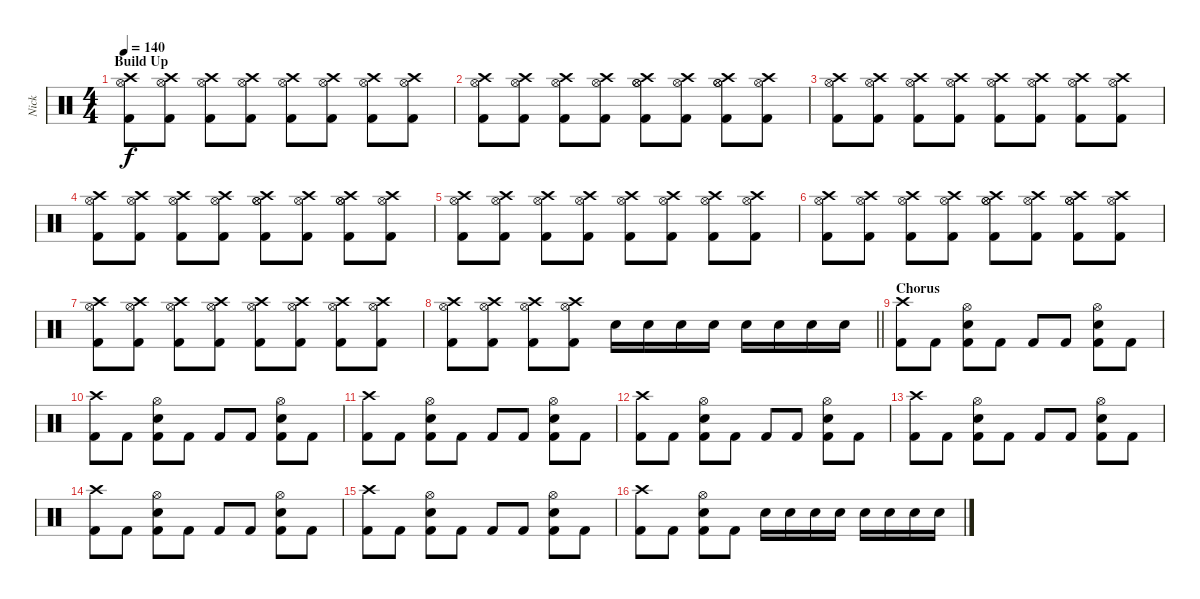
\track ("Nick" "Nick") {instrument percussion}
\staff {score}
\articulation defaults
\ts (4 4)
\section ("" "Build Up")
\tempo 140
\clef neutral
\ks c
("Hi-Hat (open)" "Crash high (hit)" "Kick (hit) 2").8{dy f} ("Hi-Hat (open)" "Crash high (hit)" "Kick (hit) 2").8 ("Hi-Hat (open)" "Crash high (hit)" "Kick (hit) 2").8 ("Hi-Hat (open)" "Crash high (hit)" "Kick (hit) 2").8 ("Hi-Hat (open)" "Crash high (hit)" "Kick (hit) 2").8 ("Hi-Hat (open)" "Crash high (hit)" "Kick (hit) 2").8 ("Hi-Hat (open)" "Crash high (hit)" "Kick (hit) 2").8 ("Hi-Hat (open)" "Crash high (hit)" "Kick (hit) 2").8 |
("Hi-Hat (open)" "Crash high (hit)" "Kick (hit) 2").8 ("Hi-Hat (open)" "Crash high (hit)" "Kick (hit) 2").8 ("Hi-Hat (open)" "Crash high (hit)" "Kick (hit) 2").8 ("Hi-Hat (open)" "Crash high (hit)" "Kick (hit) 2").8 ("Hi-Hat (open)" "Hi-Hat (open)" "Crash high (hit)" "Kick (hit) 2").8 ("Hi-Hat (open)" "Crash high (hit)" "Kick (hit) 2").8 ("Hi-Hat (open)" "Hi-Hat (open)" "Crash high (hit)" "Kick (hit) 2").8 ("Hi-Hat (open)" "Crash high (hit)" "Kick (hit) 2").8 |
("Hi-Hat (open)" "Crash high (hit)" "Kick (hit) 2").8 ("Hi-Hat (open)" "Crash high (hit)" "Kick (hit) 2").8 ("Hi-Hat (open)" "Crash high (hit)" "Kick (hit) 2").8 ("Hi-Hat (open)" "Crash high (hit)" "Kick (hit) 2").8 ("Hi-Hat (open)" "Crash high (hit)" "Kick (hit) 2").8 ("Hi-Hat (open)" "Crash high (hit)" "Kick (hit) 2").8 ("Hi-Hat (open)" "Crash high (hit)" "Kick (hit) 2").8 ("Hi-Hat (open)" "Crash high (hit)" "Kick (hit) 2").8 |
("Hi-Hat (open)" "Crash high (hit)" "Kick (hit) 2").8 ("Hi-Hat (open)" "Crash high (hit)" "Kick (hit) 2").8 ("Hi-Hat (open)" "Crash high (hit)" "Kick (hit) 2").8 ("Hi-Hat (open)" "Crash high (hit)" "Kick (hit) 2").8 ("Hi-Hat (open)" "Hi-Hat (open)" "Crash high (hit)" "Kick (hit) 2").8 ("Hi-Hat (open)" "Crash high (hit)" "Kick (hit) 2").8 ("Hi-Hat (open)" "Hi-Hat (open)" "Crash high (hit)" "Kick (hit) 2").8 ("Hi-Hat (open)" "Crash high (hit)" "Kick (hit) 2").8 |
("Hi-Hat (open)" "Crash high (hit)" "Kick (hit) 2").8 ("Hi-Hat (open)" "Crash high (hit)" "Kick (hit) 2").8 ("Hi-Hat (open)" "Crash high (hit)" "Kick (hit) 2").8 ("Hi-Hat (open)" "Crash high (hit)" "Kick (hit) 2").8 ("Hi-Hat (open)" "Crash high (hit)" "Kick (hit) 2").8 ("Hi-Hat (open)" "Crash high (hit)" "Kick (hit) 2").8 ("Hi-Hat (open)" "Crash high (hit)" "Kick (hit) 2").8 ("Hi-Hat (open)" "Crash high (hit)" "Kick (hit) 2").8 |
("Hi-Hat (open)" "Crash high (hit)" "Kick (hit) 2").8 ("Hi-Hat (open)" "Crash high (hit)" "Kick (hit) 2").8 ("Hi-Hat (open)" "Crash high (hit)" "Kick (hit) 2").8 ("Hi-Hat (open)" "Crash high (hit)" "Kick (hit) 2").8 ("Hi-Hat (open)" "Hi-Hat (open)" "Crash high (hit)" "Kick (hit) 2").8 ("Hi-Hat (open)" "Crash high (hit)" "Kick (hit) 2").8 ("Hi-Hat (open)" "Hi-Hat (open)" "Crash high (hit)" "Kick (hit) 2").8 ("Hi-Hat (open)" "Crash high (hit)" "Kick (hit) 2").8 |
("Hi-Hat (open)" "Crash high (hit)" "Kick (hit) 2").8 ("Hi-Hat (open)" "Crash high (hit)" "Kick (hit) 2").8 ("Hi-Hat (open)" "Crash high (hit)" "Kick (hit) 2").8 ("Hi-Hat (open)" "Crash high (hit)" "Kick (hit) 2").8 ("Hi-Hat (open)" "Crash high (hit)" "Kick (hit) 2").8 ("Hi-Hat (open)" "Crash high (hit)" "Kick (hit) 2").8 ("Hi-Hat (open)" "Crash high (hit)" "Kick (hit) 2").8 ("Hi-Hat (open)" "Crash high (hit)" "Kick (hit) 2").8 |
\barLineRight lightlight
("Hi-Hat (open)" "Crash high (hit)" "Kick (hit) 2").8 ("Hi-Hat (open)" "Crash high (hit)" "Kick (hit) 2").8 ("Hi-Hat (open)" "Crash high (hit)" "Kick (hit) 2").8 ("Hi-Hat (open)" "Crash high (hit)" "Kick (hit) 2").8 "Snare (hit) 2".16 "Snare (hit) 2".16 "Snare (hit) 2".16 "Snare (hit) 2".16 "Snare (hit) 2".16 "Snare (hit) 2".16 "Snare (hit) 2".16 "Snare (hit) 2".16 |
\section ("" "Chorus")
("Crash high (hit)" "Kick (hit) 2").8 "Kick (hit) 2".8 ("Hi-Hat (open)" "Snare (hit) 2" "Kick (hit) 2").8 "Kick (hit) 2".8 "Kick (hit) 2".8 "Kick (hit) 2".8 ("Hi-Hat (open)" "Snare (hit) 2" "Kick (hit) 2").8 "Kick (hit) 2".8 |
("Crash high (hit)" "Kick (hit) 2").8 "Kick (hit) 2".8 ("Hi-Hat (open)" "Snare (hit) 2" "Kick (hit) 2").8 "Kick (hit) 2".8 "Kick (hit) 2".8 "Kick (hit) 2".8 ("Hi-Hat (open)" "Snare (hit) 2" "Kick (hit) 2").8 "Kick (hit) 2".8 |
("Crash high (hit)" "Kick (hit) 2").8 "Kick (hit) 2".8 ("Hi-Hat (open)" "Snare (hit) 2" "Kick (hit) 2").8 "Kick (hit) 2".8 "Kick (hit) 2".8 "Kick (hit) 2".8 ("Hi-Hat (open)" "Snare (hit) 2" "Kick (hit) 2").8 "Kick (hit) 2".8 |
("Crash high (hit)" "Kick (hit) 2").8 "Kick (hit) 2".8 ("Hi-Hat (open)" "Snare (hit) 2" "Kick (hit) 2").8 "Kick (hit) 2".8 "Kick (hit) 2".8 "Kick (hit) 2".8 ("Hi-Hat (open)" "Snare (hit) 2" "Kick (hit) 2").8 "Kick (hit) 2".8 |
("Crash high (hit)" "Kick (hit) 2").8 "Kick (hit) 2".8 ("Hi-Hat (open)" "Snare (hit) 2" "Kick (hit) 2").8 "Kick (hit) 2".8 "Kick (hit) 2".8 "Kick (hit) 2".8 ("Hi-Hat (open)" "Snare (hit) 2" "Kick (hit) 2").8 "Kick (hit) 2".8 |
("Crash high (hit)" "Kick (hit) 2").8 "Kick (hit) 2".8 ("Hi-Hat (open)" "Snare (hit) 2" "Kick (hit) 2").8 "Kick (hit) 2".8 "Kick (hit) 2".8 "Kick (hit) 2".8 ("Hi-Hat (open)" "Snare (hit) 2" "Kick (hit) 2").8 "Kick (hit) 2".8 |
("Crash high (hit)" "Kick (hit) 2").8 "Kick (hit) 2".8 ("Hi-Hat (open)" "Snare (hit) 2" "Kick (hit) 2").8 "Kick (hit) 2".8 "Kick (hit) 2".8 "Kick (hit) 2".8 ("Hi-Hat (open)" "Snare (hit) 2" "Kick (hit) 2").8 "Kick (hit) 2".8 |
("Crash high (hit)" "Kick (hit) 2").8 "Kick (hit) 2".8 ("Hi-Hat (open)" "Snare (hit) 2" "Kick (hit) 2").8 "Kick (hit) 2".8 "Snare (hit) 2".16 "Snare (hit) 2".16 "Snare (hit) 2".16 "Snare (hit) 2".16 "Snare (hit) 2".16 "Snare (hit) 2".16 "Snare (hit) 2".16 "Snare (hit) 2".16
